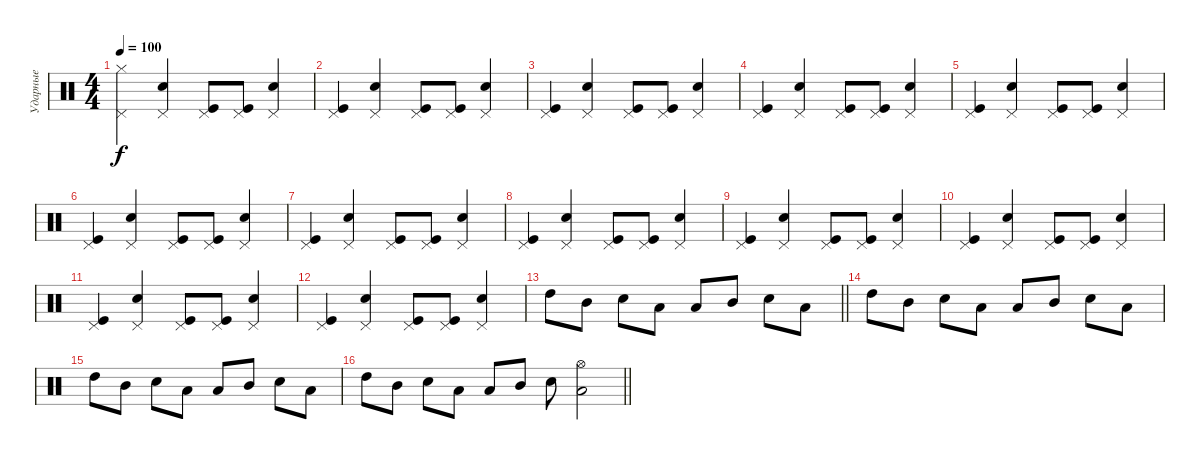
\track ("Ударные" "Ударные") {instrument percussion}
\staff {score}
\articulation defaults
\ts (4 4)
\tempo 100
\clef neutral
\ks c
("Pedal Hi-Hat (hit)" "Hi-Hat (closed)").4{dy f} ("Pedal Hi-Hat (hit)" "Snare (hit) 2").4 ("Pedal Hi-Hat (hit)" "Kick (hit)").8 ("Pedal Hi-Hat (hit)" "Kick (hit)").8 ("Pedal Hi-Hat (hit)" "Snare (hit) 2").4 |
("Pedal Hi-Hat (hit)" "Kick (hit)").4 ("Pedal Hi-Hat (hit)" "Snare (hit) 2").4 ("Pedal Hi-Hat (hit)" "Kick (hit)").8 ("Pedal Hi-Hat (hit)" "Kick (hit)").8 ("Pedal Hi-Hat (hit)" "Snare (hit) 2").4 |
("Pedal Hi-Hat (hit)" "Kick (hit)").4 ("Pedal Hi-Hat (hit)" "Snare (hit) 2").4 ("Pedal Hi-Hat (hit)" "Kick (hit)").8 ("Pedal Hi-Hat (hit)" "Kick (hit)").8 ("Pedal Hi-Hat (hit)" "Snare (hit) 2").4 |
("Pedal Hi-Hat (hit)" "Kick (hit)").4 ("Pedal Hi-Hat (hit)" "Snare (hit) 2").4 ("Pedal Hi-Hat (hit)" "Kick (hit)").8 ("Pedal Hi-Hat (hit)" "Kick (hit)").8 ("Pedal Hi-Hat (hit)" "Snare (hit) 2").4 |
("Pedal Hi-Hat (hit)" "Kick (hit)").4 ("Pedal Hi-Hat (hit)" "Snare (hit) 2").4 ("Pedal Hi-Hat (hit)" "Kick (hit)").8 ("Pedal Hi-Hat (hit)" "Kick (hit)").8 ("Pedal Hi-Hat (hit)" "Snare (hit) 2").4 |
("Pedal Hi-Hat (hit)" "Kick (hit)").4 ("Pedal Hi-Hat (hit)" "Snare (hit) 2").4 ("Pedal Hi-Hat (hit)" "Kick (hit)").8 ("Pedal Hi-Hat (hit)" "Kick (hit)").8 ("Pedal Hi-Hat (hit)" "Snare (hit) 2").4 |
("Pedal Hi-Hat (hit)" "Kick (hit)").4 ("Pedal Hi-Hat (hit)" "Snare (hit) 2").4 ("Pedal Hi-Hat (hit)" "Kick (hit)").8 ("Pedal Hi-Hat (hit)" "Kick (hit)").8 ("Pedal Hi-Hat (hit)" "Snare (hit) 2").4 |
("Pedal Hi-Hat (hit)" "Kick (hit)").4 ("Pedal Hi-Hat (hit)" "Snare (hit) 2").4 ("Pedal Hi-Hat (hit)" "Kick (hit)").8 ("Pedal Hi-Hat (hit)" "Kick (hit)").8 ("Pedal Hi-Hat (hit)" "Snare (hit) 2").4 |
("Pedal Hi-Hat (hit)" "Kick (hit)").4 ("Pedal Hi-Hat (hit)" "Snare (hit) 2").4 ("Pedal Hi-Hat (hit)" "Kick (hit)").8 ("Pedal Hi-Hat (hit)" "Kick (hit)").8 ("Pedal Hi-Hat (hit)" "Snare (hit) 2").4 |
("Pedal Hi-Hat (hit)" "Kick (hit)").4 ("Pedal Hi-Hat (hit)" "Snare (hit) 2").4 ("Pedal Hi-Hat (hit)" "Kick (hit)").8 ("Pedal Hi-Hat (hit)" "Kick (hit)").8 ("Pedal Hi-Hat (hit)" "Snare (hit) 2").4 |
("Pedal Hi-Hat (hit)" "Kick (hit)").4 ("Pedal Hi-Hat (hit)" "Snare (hit) 2").4 ("Pedal Hi-Hat (hit)" "Kick (hit)").8 ("Pedal Hi-Hat (hit)" "Kick (hit)").8 ("Pedal Hi-Hat (hit)" "Snare (hit) 2").4 |
("Pedal Hi-Hat (hit)" "Kick (hit)").4 ("Pedal Hi-Hat (hit)" "Snare (hit) 2").4 ("Pedal Hi-Hat (hit)" "Kick (hit)").8 ("Pedal Hi-Hat (hit)" "Kick (hit)").8 ("Pedal Hi-Hat (hit)" "Snare (hit) 2").4 |
\barLineRight lightlight "High Tom (hit)".8 "Mid Tom (hit)".8 "Snare (hit) 2".8 "Low Floor Tom (hit)".8 "Low Tom (hit)".8 "Mid Tom (hit)".8 "Snare (hit) 2".8 "Low Floor Tom (hit)".8
|
"High Tom (hit)".8 "Mid Tom (hit)".8 "Snare (hit) 2".8 "Low Floor Tom (hit)".8 "Low Tom (hit)".8 "Mid Tom (hit)".8 "Snare (hit) 2".8 "Low Floor Tom (hit)".8 |
"High Tom (hit)".8 "Mid Tom (hit)".8 "Snare (hit) 2".8 "Low Floor Tom (hit)".8 "Low Tom (hit)".8 "Mid Tom (hit)".8 "Snare (hit) 2".8 "Low Floor Tom (hit)".8 |
\barLineRight lightlight "High Tom (hit)".8 "Mid Tom (hit)".8 "Snare (hit) 2".8 "Low Floor Tom (hit)".8 "Low Tom (hit)".8 "Mid Tom (hit)".8 "Snare (hit) 2".8
("Low Floor Tom (hit)" "Hi-Hat (open)").2
